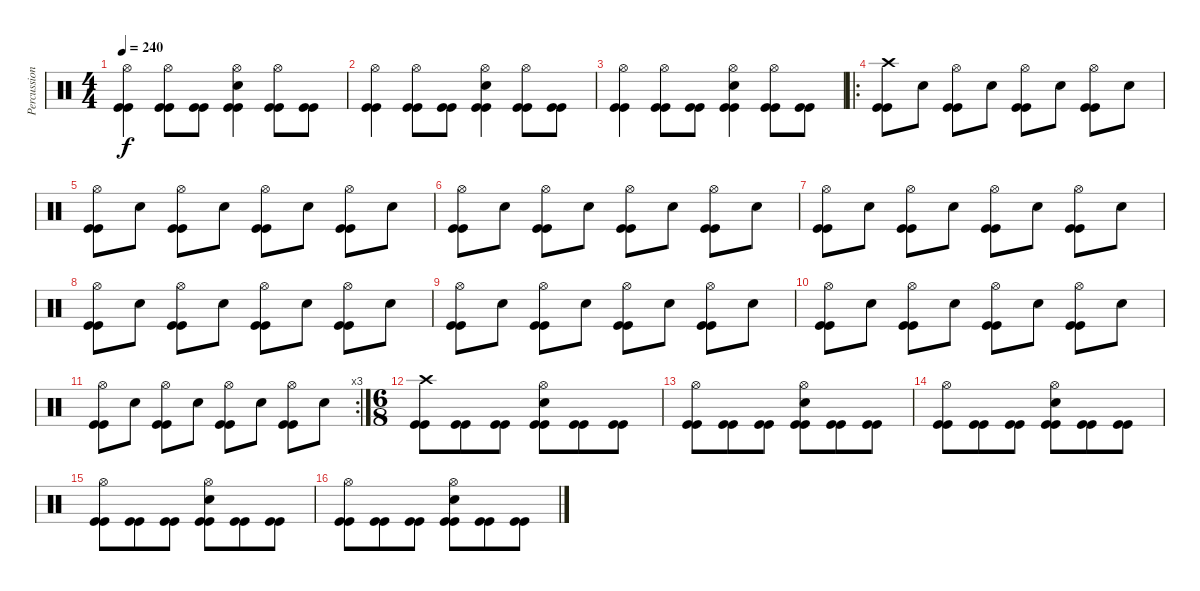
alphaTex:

\track ("Percussion" "Percussion") {instrument percussion}
\staff {score}
\articulation defaults
\ts (4 4)
\tempo 240
\clef neutral
\ks c
("Hi-Hat (open)" "Kick (hit)" "Kick (hit)").4{dy f} ("Hi-Hat (open)" "Kick (hit)" "Kick (hit)").8 ("Kick (hit)" "Kick (hit)").8 ("Hi-Hat (open)" "Snare (hit) 2" "Kick (hit)" "Kick (hit)").4 ("Hi-Hat (open)" "Kick (hit)" "Kick (hit)").8 ("Kick (hit)" "Kick (hit)").8 |
("Hi-Hat (open)" "Kick (hit)" "Kick (hit)").4 ("Hi-Hat (open)" "Kick (hit)" "Kick (hit)").8 ("Kick (hit)" "Kick (hit)").8 ("Hi-Hat (open)" "Snare (hit) 2" "Kick (hit)" "Kick (hit)").4 ("Hi-Hat (open)" "Kick (hit)" "Kick (hit)").8 ("Kick (hit)" "Kick (hit)").8 |
("Hi-Hat (open)" "Kick (hit)" "Kick (hit)").4 ("Hi-Hat (open)" "Kick (hit)" "Kick (hit)").8 ("Kick (hit)" "Kick (hit)").8 ("Hi-Hat (open)" "Snare (hit) 2" "Kick (hit)" "Kick (hit)").4 ("Hi-Hat (open)" "Kick (hit)" "Kick (hit)").8 ("Kick (hit)" "Kick (hit)").8 |
\ro
("Crash high (hit)" "Kick (hit)" "Kick (hit)").8 "Snare (hit) 2".8 ("Hi-Hat (open)" "Kick (hit)" "Kick (hit)").8 "Snare (hit) 2".8 ("Hi-Hat (open)" "Kick (hit)" "Kick (hit)").8 "Snare (hit) 2".8 ("Hi-Hat (open)" "Kick (hit)" "Kick (hit)").8 "Snare (hit) 2".8 |
("Hi-Hat (open)" "Kick (hit)" "Kick (hit)").8 "Snare (hit) 2".8 ("Hi-Hat (open)" "Kick (hit)" "Kick (hit)").8 "Snare (hit) 2".8 ("Hi-Hat (open)" "Kick (hit)" "Kick (hit)").8 "Snare (hit) 2".8 ("Hi-Hat (open)" "Kick (hit)" "Kick (hit)").8 "Snare (hit) 2".8 |
("Hi-Hat (open)" "Kick (hit)" "Kick (hit)").8 "Snare (hit) 2".8 ("Hi-Hat (open)" "Kick (hit)" "Kick (hit)").8 "Snare (hit) 2".8 ("Hi-Hat (open)" "Kick (hit)" "Kick (hit)").8 "Snare (hit) 2".8 ("Hi-Hat (open)" "Kick (hit)" "Kick (hit)").8 "Snare (hit) 2".8 |
("Hi-Hat (open)" "Kick (hit)" "Kick (hit)").8 "Snare (hit) 2".8 ("Hi-Hat (open)" "Kick (hit)" "Kick (hit)").8 "Snare (hit) 2".8 ("Hi-Hat (open)" "Kick (hit)" "Kick (hit)").8 "Snare (hit) 2".8 ("Hi-Hat (open)" "Kick (hit)" "Kick (hit)").8 "Snare (hit) 2".8 |
("Hi-Hat (open)" "Kick (hit)" "Kick (hit)").8 "Snare (hit) 2".8 ("Hi-Hat (open)" "Kick (hit)" "Kick (hit)").8 "Snare (hit) 2".8 ("Hi-Hat (open)" "Kick (hit)" "Kick (hit)").8 "Snare (hit) 2".8 ("Hi-Hat (open)" "Kick (hit)" "Kick (hit)").8 "Snare (hit) 2".8 |
("Hi-Hat (open)" "Kick (hit)" "Kick (hit)").8 "Snare (hit) 2".8 ("Hi-Hat (open)" "Kick (hit)" "Kick (hit)").8 "Snare (hit) 2".8 ("Hi-Hat (open)" "Kick (hit)" "Kick (hit)").8 "Snare (hit) 2".8 ("Hi-Hat (open)" "Kick (hit)" "Kick (hit)").8 "Snare (hit) 2".8 |
("Hi-Hat (open)" "Kick (hit)" "Kick (hit)").8 "Snare (hit) 2".8 ("Hi-Hat (open)" "Kick (hit)" "Kick (hit)").8 "Snare (hit) 2".8 ("Hi-Hat (open)" "Kick (hit)" "Kick (hit)").8 "Snare (hit) 2".8 ("Hi-Hat (open)" "Kick (hit)" "Kick (hit)").8 "Snare (hit) 2".8 |
\rc 3
("Hi-Hat (open)" "Kick (hit)" "Kick (hit)").8 "Snare (hit) 2".8 ("Hi-Hat (open)" "Kick (hit)" "Kick (hit)").8 "Snare (hit) 2".8 ("Hi-Hat (open)" "Kick (hit)" "Kick (hit)").8 "Snare (hit) 2".8 ("Hi-Hat (open)" "Kick (hit)" "Kick (hit)").8 "Snare (hit) 2".8 |
\ts (6 8)
("Crash high (hit)" "Kick (hit)" "Kick (hit)").8 ("Kick (hit)" "Kick (hit)").8 ("Kick (hit)" "Kick (hit)").8 ("Hi-Hat (open)" "Snare (hit) 2" "Kick (hit)" "Kick (hit)").8 ("Kick (hit)" "Kick (hit)").8 ("Kick (hit)" "Kick (hit)").8 |
("Hi-Hat (open)" "Kick (hit)" "Kick (hit)").8 ("Kick (hit)" "Kick (hit)").8 ("Kick (hit)" "Kick (hit)").8 ("Hi-Hat (open)" "Snare (hit) 2" "Kick (hit)" "Kick (hit)").8 ("Kick (hit)" "Kick (hit)").8 ("Kick (hit)" "Kick (hit)").8 |
("Hi-Hat (open)" "Kick (hit)" "Kick (hit)").8 ("Kick (hit)" "Kick (hit)").8 ("Kick (hit)" "Kick (hit)").8 ("Hi-Hat (open)" "Snare (hit) 2" "Kick (hit)" "Kick (hit)").8 ("Kick (hit)" "Kick (hit)").8 ("Kick (hit)" "Kick (hit)").8 |
("Hi-Hat (open)" "Kick (hit)" "Kick (hit)").8 ("Kick (hit)" "Kick (hit)").8 ("Kick (hit)" "Kick (hit)").8 ("Hi-Hat (open)" "Snare (hit) 2" "Kick (hit)" "Kick (hit)").8 ("Kick (hit)" "Kick (hit)").8 ("Kick (hit)" "Kick (hit)").8 |
("Hi-Hat (open)" "Kick (hit)" "Kick (hit)").8 ("Kick (hit)" "Kick (hit)").8 ("Kick (hit)" "Kick (hit)").8 ("Hi-Hat (open)" "Snare (hit) 2" "Kick (hit)" "Kick (hit)").8 ("Kick (hit)" "Kick (hit)").8 ("Kick (hit)" "Kick (hit)").8
